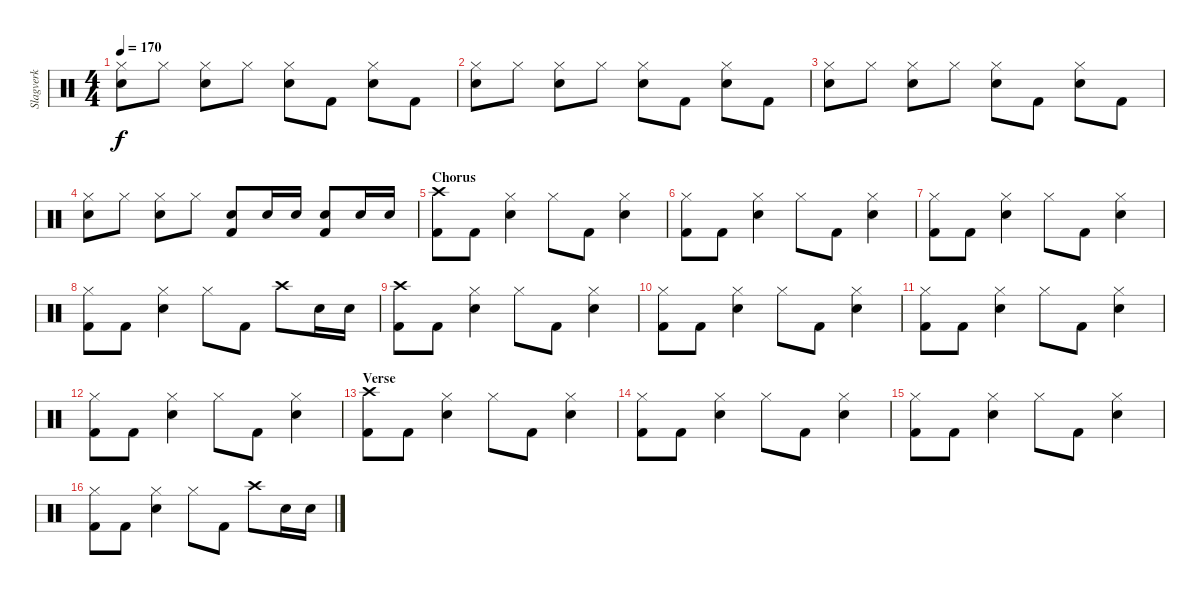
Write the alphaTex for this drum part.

\track ("Slagverk" "Slagverk") {instrument percussion}
\staff {score}
\articulation defaults
\ts (4 4)
\tempo 170
\clef neutral
\ks c
("Hi-Hat (closed)" "Snare (hit) 2").8{dy f} "Hi-Hat (closed)".8 ("Hi-Hat (closed)" "Snare (hit) 2").8 "Hi-Hat (closed)".8 ("Hi-Hat (closed)" "Snare (hit) 2").8 "Kick (hit) 2".8 ("Hi-Hat (closed)" "Snare (hit) 2").8 "Kick (hit) 2".8 |
("Hi-Hat (closed)" "Snare (hit) 2").8 "Hi-Hat (closed)".8 ("Hi-Hat (closed)" "Snare (hit) 2").8 "Hi-Hat (closed)".8 ("Hi-Hat (closed)" "Snare (hit) 2").8 "Kick (hit) 2".8 ("Hi-Hat (closed)" "Snare (hit) 2").8 "Kick (hit) 2".8 |
("Hi-Hat (closed)" "Snare (hit) 2").8 "Hi-Hat (closed)".8 ("Hi-Hat (closed)" "Snare (hit) 2").8 "Hi-Hat (closed)".8 ("Hi-Hat (closed)" "Snare (hit) 2").8 "Kick (hit) 2".8 ("Hi-Hat (closed)" "Snare (hit) 2").8 "Kick (hit) 2".8 |
("Hi-Hat (closed)" "Snare (hit) 2").8 "Hi-Hat (closed)".8 ("Hi-Hat (closed)" "Snare (hit) 2").8 "Hi-Hat (closed)".8 ("Kick (hit) 2" "Snare (hit) 2").8 "Snare (hit) 2".16 "Snare (hit) 2".16 ("Kick (hit) 2" "Snare (hit) 2").8 "Snare (hit) 2".16 "Snare (hit) 2".16 |
\section ("" "Chorus")
("Kick (hit) 2" "Crash high (hit)").8 "Kick (hit) 2".8 ("Hi-Hat (closed)" "Snare (hit) 2").4 "Hi-Hat (closed)".8 "Kick (hit) 2".8 ("Hi-Hat (closed)" "Snare (hit) 2").4 |
("Kick (hit) 2" "Hi-Hat (closed)").8 "Kick (hit) 2".8 ("Hi-Hat (closed)" "Snare (hit) 2").4 "Hi-Hat (closed)".8 "Kick (hit) 2".8 ("Hi-Hat (closed)" "Snare (hit) 2").4 |
("Kick (hit) 2" "Hi-Hat (closed)").8 "Kick (hit) 2".8 ("Hi-Hat (closed)" "Snare (hit) 2").4 "Hi-Hat (closed)".8 "Kick (hit) 2".8 ("Hi-Hat (closed)" "Snare (hit) 2").4 |
("Kick (hit) 2" "Hi-Hat (closed)").8 "Kick (hit) 2".8 ("Hi-Hat (closed)" "Snare (hit) 2").4 "Hi-Hat (closed)".8 "Kick (hit) 2".8 "Crash high (hit)".8 "Snare (hit) 2".16 "Snare (hit) 2".16 |
("Kick (hit) 2" "Crash high (hit)").8 "Kick (hit) 2".8 ("Hi-Hat (closed)" "Snare (hit) 2").4 "Hi-Hat (closed)".8 "Kick (hit) 2".8 ("Hi-Hat (closed)" "Snare (hit) 2").4 |
("Kick (hit) 2" "Hi-Hat (closed)").8 "Kick (hit) 2".8 ("Hi-Hat (closed)" "Snare (hit) 2").4 "Hi-Hat (closed)".8 "Kick (hit) 2".8 ("Hi-Hat (closed)" "Snare (hit) 2").4 |
("Kick (hit) 2" "Hi-Hat (closed)").8 "Kick (hit) 2".8 ("Hi-Hat (closed)" "Snare (hit) 2").4 "Hi-Hat (closed)".8 "Kick (hit) 2".8 ("Hi-Hat (closed)" "Snare (hit) 2").4 |
("Kick (hit) 2" "Hi-Hat (closed)").8 "Kick (hit) 2".8 ("Hi-Hat (closed)" "Snare (hit) 2").4 "Hi-Hat (closed)".8 "Kick (hit) 2".8 ("Hi-Hat (closed)" "Snare (hit) 2").4 |
\section ("" "Verse")
("Kick (hit) 2" "Crash high (hit)").8 "Kick (hit) 2".8 ("Hi-Hat (closed)" "Snare (hit) 2").4 "Hi-Hat (closed)".8 "Kick (hit) 2".8 ("Hi-Hat (closed)" "Snare (hit) 2").4 |
("Kick (hit) 2" "Hi-Hat (closed)").8 "Kick (hit) 2".8 ("Hi-Hat (closed)" "Snare (hit) 2").4 "Hi-Hat (closed)".8 "Kick (hit) 2".8 ("Hi-Hat (closed)" "Snare (hit) 2").4 |
("Kick (hit) 2" "Hi-Hat (closed)").8 "Kick (hit) 2".8 ("Hi-Hat (closed)" "Snare (hit) 2").4 "Hi-Hat (closed)".8 "Kick (hit) 2".8 ("Hi-Hat (closed)" "Snare (hit) 2").4 |
("Kick (hit) 2" "Hi-Hat (closed)").8 "Kick (hit) 2".8 ("Hi-Hat (closed)" "Snare (hit) 2").4 "Hi-Hat (closed)".8 "Kick (hit) 2".8 "Crash high (hit)".8 "Snare (hit) 2".16 "Snare (hit) 2".16
